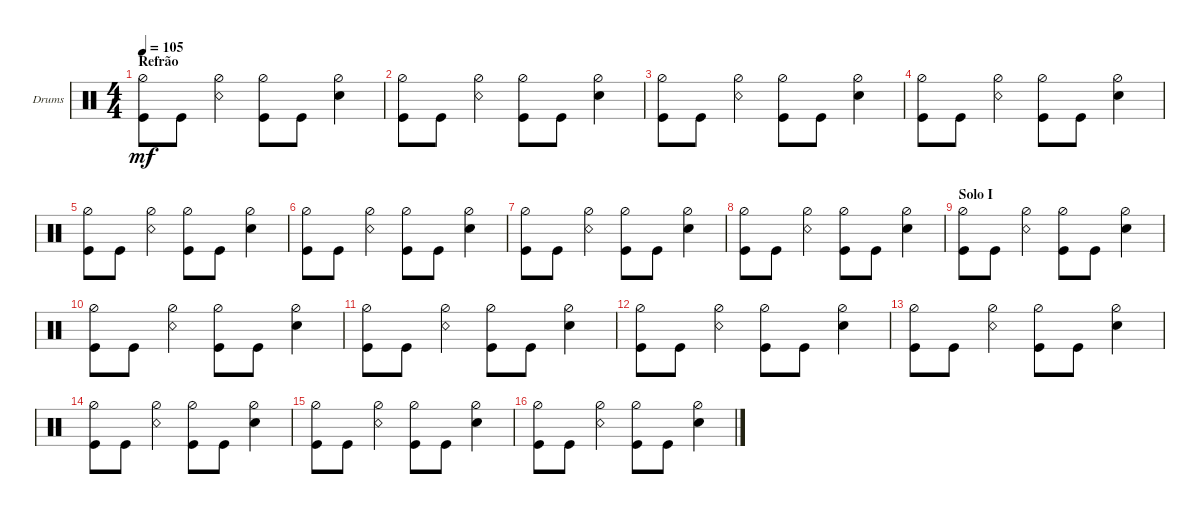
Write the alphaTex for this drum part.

\defaultSystemsLayout 4
\bracketExtendMode groupsimilarinstruments
\firstSystemTrackNameOrientation horizontal
\otherSystemsTrackNameOrientation horizontal
\track ("Drumkit" "Drums") {instrument percussion}
\staff {score}
\articulation defaults
\ts (4 4)
\section ("" "Refrão")
\tempo 105
\clef neutral
\ks c
("Hi-Hat (half)" "Kick (hit)").8{dy mf} "Kick (hit)".8 ("Snare (rim shot)" "Hi-Hat (half)").4 ("Hi-Hat (half)" "Kick (hit)").8 "Kick (hit)".8 ("Snare (hit) 2" "Hi-Hat (half)").4 |
("Hi-Hat (half)" "Kick (hit)").8 "Kick (hit)".8 ("Snare (rim shot)" "Hi-Hat (half)").4 ("Hi-Hat (half)" "Kick (hit)").8 "Kick (hit)".8 ("Snare (hit) 2" "Hi-Hat (half)").4 |
("Hi-Hat (half)" "Kick (hit)").8 "Kick (hit)".8 ("Snare (rim shot)" "Hi-Hat (half)").4 ("Hi-Hat (half)" "Kick (hit)").8 "Kick (hit)".8 ("Snare (hit) 2" "Hi-Hat (half)").4 |
("Hi-Hat (half)" "Kick (hit)").8 "Kick (hit)".8 ("Snare (rim shot)" "Hi-Hat (half)").4 ("Hi-Hat (half)" "Kick (hit)").8 "Kick (hit)".8 ("Snare (hit) 2" "Hi-Hat (half)").4 |
("Hi-Hat (half)" "Kick (hit)").8 "Kick (hit)".8 ("Snare (rim shot)" "Hi-Hat (half)").4 ("Hi-Hat (half)" "Kick (hit)").8 "Kick (hit)".8 ("Snare (hit) 2" "Hi-Hat (half)").4 |
("Hi-Hat (half)" "Kick (hit)").8 "Kick (hit)".8 ("Snare (rim shot)" "Hi-Hat (half)").4 ("Hi-Hat (half)" "Kick (hit)").8 "Kick (hit)".8 ("Snare (hit) 2" "Hi-Hat (half)").4 |
("Hi-Hat (half)" "Kick (hit)").8 "Kick (hit)".8 ("Snare (rim shot)" "Hi-Hat (half)").4 ("Hi-Hat (half)" "Kick (hit)").8 "Kick (hit)".8 ("Snare (hit) 2" "Hi-Hat (half)").4 |
("Hi-Hat (half)" "Kick (hit)").8 "Kick (hit)".8 ("Snare (rim shot)" "Hi-Hat (half)").4 ("Hi-Hat (half)" "Kick (hit)").8 "Kick (hit)".8 ("Snare (hit) 2" "Hi-Hat (half)").4 |
\section ("" "Solo I")
("Hi-Hat (half)" "Kick (hit)").8 "Kick (hit)".8 ("Snare (rim shot)" "Hi-Hat (half)").4 ("Hi-Hat (half)" "Kick (hit)").8 "Kick (hit)".8 ("Snare (hit) 2" "Hi-Hat (half)").4 |
("Hi-Hat (half)" "Kick (hit)").8 "Kick (hit)".8 ("Snare (rim shot)" "Hi-Hat (half)").4 ("Hi-Hat (half)" "Kick (hit)").8 "Kick (hit)".8 ("Snare (hit) 2" "Hi-Hat (half)").4 |
("Hi-Hat (half)" "Kick (hit)").8 "Kick (hit)".8 ("Snare (rim shot)" "Hi-Hat (half)").4 ("Hi-Hat (half)" "Kick (hit)").8 "Kick (hit)".8 ("Snare (hit) 2" "Hi-Hat (half)").4 |
("Hi-Hat (half)" "Kick (hit)").8 "Kick (hit)".8 ("Snare (rim shot)" "Hi-Hat (half)").4 ("Hi-Hat (half)" "Kick (hit)").8 "Kick (hit)".8 ("Snare (hit) 2" "Hi-Hat (half)").4 |
("Hi-Hat (half)" "Kick (hit)").8 "Kick (hit)".8 ("Snare (rim shot)" "Hi-Hat (half)").4 ("Hi-Hat (half)" "Kick (hit)").8 "Kick (hit)".8 ("Snare (hit) 2" "Hi-Hat (half)").4 |
("Hi-Hat (half)" "Kick (hit)").8 "Kick (hit)".8 ("Snare (rim shot)" "Hi-Hat (half)").4 ("Hi-Hat (half)" "Kick (hit)").8 "Kick (hit)".8 ("Snare (hit) 2" "Hi-Hat (half)").4 |
("Hi-Hat (half)" "Kick (hit)").8 "Kick (hit)".8 ("Snare (rim shot)" "Hi-Hat (half)").4 ("Hi-Hat (half)" "Kick (hit)").8 "Kick (hit)".8 ("Snare (hit) 2" "Hi-Hat (half)").4 |
("Hi-Hat (half)" "Kick (hit)").8 "Kick (hit)".8 ("Snare (rim shot)" "Hi-Hat (half)").4 ("Hi-Hat (half)" "Kick (hit)").8 "Kick (hit)".8 ("Snare (hit) 2" "Hi-Hat (half)").4
